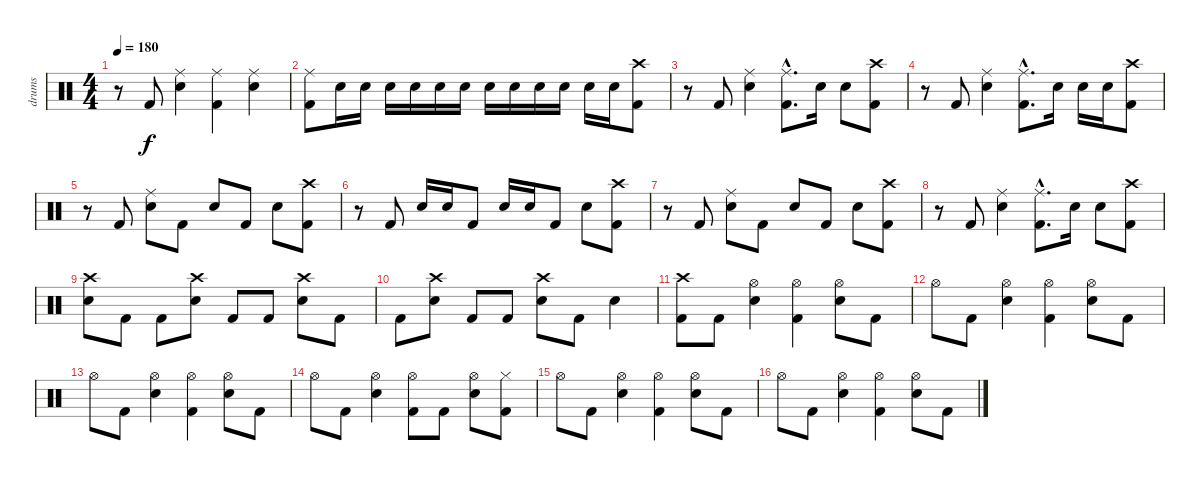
\track ("drums" "drums") {instrument percussion}
\staff {score}
\articulation defaults
\ts (4 4)
\tempo 180
\clef neutral
\ks c
r.8{dy f} "Kick (hit) 2".8 ("Ride (middle)" "Electric Snare (hit)").4 ("Ride (middle)" "Kick (hit) 2").4 ("Ride (middle)" "Electric Snare (hit)").4 |
("Ride (middle)" "Kick (hit) 2").8 "Electric Snare (hit)".16 "Electric Snare (hit)".16 "Electric Snare (hit)".16 "Electric Snare (hit)".16 "Electric Snare (hit)".16 "Electric Snare (hit)".16 "Electric Snare (hit)".16 "Electric Snare (hit)".16 "Electric Snare (hit)".16 "Electric Snare (hit)".16 "Electric Snare (hit)".16 "Electric Snare (hit)".16 ("Crash high (hit)" "Kick (hit) 2").8 |
r.8 "Kick (hit) 2".8 ("Ride (middle)" "Electric Snare (hit)").4 ("Ride (middle)"{hac} "Kick (hit) 2"{hac}).8{d} "Electric Snare (hit)".16 "Electric Snare (hit)".8 ("Crash high (hit)" "Kick (hit) 2").8 |
r.8 "Kick (hit) 2".8 ("Ride (middle)" "Electric Snare (hit)").4 ("Ride (middle)"{hac} "Kick (hit) 2"{hac}).8{d} "Electric Snare (hit)".16 "Electric Snare (hit)".16 "Electric Snare (hit)".16 ("Crash high (hit)" "Kick (hit) 2").8 |
r.8 "Kick (hit) 2".8 ("Ride (middle)" "Electric Snare (hit)").8 "Kick (hit) 2".8 "Electric Snare (hit)".8 "Kick (hit) 2".8 "Electric Snare (hit)".8 ("Crash high (hit)" "Kick (hit) 2").8 |
r.8 "Kick (hit) 2".8 "Electric Snare (hit)".16 "Electric Snare (hit)".16 "Kick (hit) 2".8 "Electric Snare (hit)".16 "Electric Snare (hit)".16 "Kick (hit) 2".8 "Electric Snare (hit)".8 ("Crash high (hit)" "Kick (hit) 2").8 |
r.8 "Kick (hit) 2".8 ("Ride (middle)" "Electric Snare (hit)").8 "Kick (hit) 2".8 "Electric Snare (hit)".8 "Kick (hit) 2".8 "Electric Snare (hit)".8 ("Crash high (hit)" "Kick (hit) 2").8 |
r.8 "Kick (hit) 2".8 ("Ride (middle)" "Electric Snare (hit)").4 ("Ride (middle)"{hac} "Kick (hit) 2"{hac}).8{d} "Electric Snare (hit)".16 "Electric Snare (hit)".8 ("Crash high (hit)" "Kick (hit) 2").8 |
("Crash high (hit)" "Electric Snare (hit)").8 "Kick (hit) 2".8 "Kick (hit) 2".8 ("Crash high (hit)" "Electric Snare (hit)").8 "Kick (hit) 2".8 "Kick (hit) 2".8 ("Crash high (hit)" "Electric Snare (hit)").8 "Kick (hit) 2".8 |
"Kick (hit) 2".8 ("Crash high (hit)" "Electric Snare (hit)").8 "Kick (hit) 2".8 "Kick (hit) 2".8 ("Crash high (hit)" "Electric Snare (hit)").8 "Kick (hit) 2".8 "Electric Snare (hit)".4 |
("Crash high (hit)" "Kick (hit) 2").8 "Kick (hit) 2".8 ("Hi-Hat (open)" "Electric Snare (hit)").4 ("Hi-Hat (open)" "Kick (hit) 2").4 ("Hi-Hat (open)" "Electric Snare (hit)").8 "Kick (hit) 2".8 |
"Hi-Hat (open)".8 "Kick (hit) 2".8 ("Hi-Hat (open)" "Electric Snare (hit)").4 ("Hi-Hat (open)" "Kick (hit) 2").4 ("Hi-Hat (open)" "Electric Snare (hit)").8 "Kick (hit) 2".8 |
"Hi-Hat (open)".8 "Kick (hit) 2".8 ("Hi-Hat (open)" "Electric Snare (hit)").4 ("Hi-Hat (open)" "Kick (hit) 2").4 ("Hi-Hat (open)" "Electric Snare (hit)").8 "Kick (hit) 2".8 |
"Hi-Hat (open)".8 "Kick (hit) 2".8 ("Hi-Hat (open)" "Electric Snare (hit)").4 ("Hi-Hat (open)" "Kick (hit) 2").8 "Kick (hit) 2".8 ("Hi-Hat (open)" "Electric Snare (hit)").8 ("Hi-Hat (closed)" "Kick (hit) 2").8 |
"Hi-Hat (open)".8 "Kick (hit) 2".8 ("Hi-Hat (open)" "Electric Snare (hit)").4 ("Hi-Hat (open)" "Kick (hit) 2").4 ("Hi-Hat (open)" "Electric Snare (hit)").8 "Kick (hit) 2".8 |
"Hi-Hat (open)".8 "Kick (hit) 2".8 ("Hi-Hat (open)" "Electric Snare (hit)").4 ("Hi-Hat (open)" "Kick (hit) 2").4 ("Hi-Hat (open)" "Electric Snare (hit)").8 "Kick (hit) 2".8
